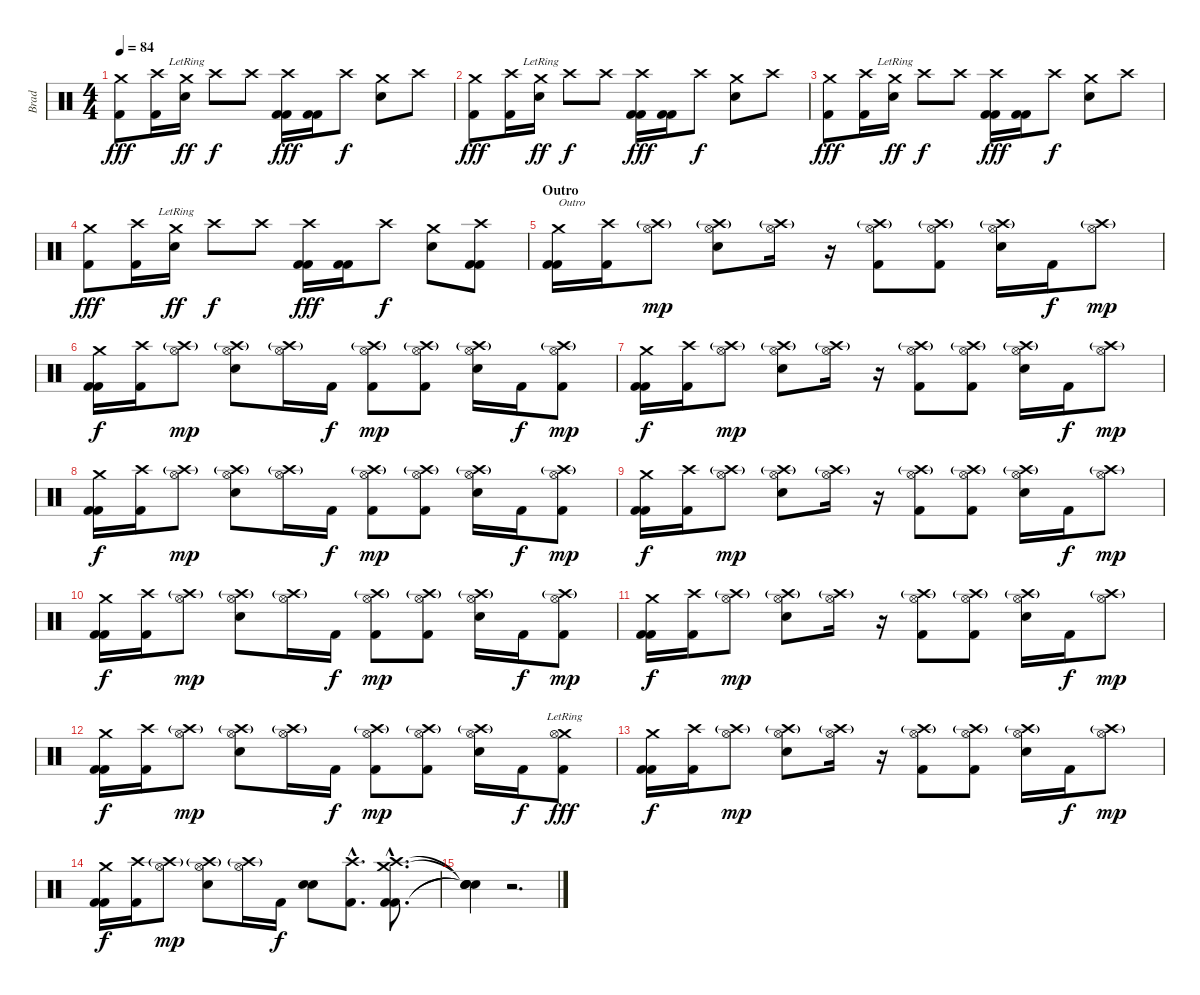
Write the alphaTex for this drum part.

\track ("Brad" "Brad") {instrument percussion}
\staff {score}
\articulation defaults
\ts (4 4)
\tempo 84
\clef neutral
\ks c
("Crash medium (hit)" "Kick (hit) 2").8{dy fff} ("Crash high (hit)" "Kick (hit) 2").16 ("Crash medium (hit)"{lr} "Electric Snare (hit)").16{dy ff} "Crash high (hit)".8{dy f} "Crash high (hit)".8 ("Crash high (hit)" "Kick (hit) 2" "Kick (hit) 2").16{dy fff} ("Kick (hit) 2" "Kick (hit) 2").16 "Crash high (hit)".8{dy f} ("Crash medium (hit)" "Electric Snare (hit)").8 "Crash high (hit)".8 |
("Crash medium (hit)" "Kick (hit) 2").8{dy fff} ("Crash high (hit)" "Kick (hit) 2").16 ("Crash medium (hit)"{lr} "Electric Snare (hit)").16{dy ff} "Crash high (hit)".8{dy f} "Crash high (hit)".8 ("Crash high (hit)" "Kick (hit) 2" "Kick (hit) 2").16{dy fff} ("Kick (hit) 2" "Kick (hit) 2").16 "Crash high (hit)".8{dy f} ("Crash medium (hit)" "Electric Snare (hit)").8 "Crash high (hit)".8 |
("Crash medium (hit)" "Kick (hit) 2").8{dy fff} ("Crash high (hit)" "Kick (hit) 2").16 ("Crash medium (hit)"{lr} "Electric Snare (hit)").16{dy ff} "Crash high (hit)".8{dy f} "Crash high (hit)".8 ("Crash high (hit)" "Kick (hit) 2" "Kick (hit) 2").16{dy fff} ("Kick (hit) 2" "Kick (hit) 2").16 "Crash high (hit)".8{dy f} ("Crash medium (hit)" "Electric Snare (hit)").8 "Crash high (hit)".8 |
("Crash medium (hit)" "Kick (hit) 2").8{dy fff} ("Crash high (hit)" "Kick (hit) 2").16 ("Crash medium (hit)"{lr} "Electric Snare (hit)").16{dy ff} "Crash high (hit)".8{dy f} "Crash high (hit)".8 ("Crash high (hit)" "Kick (hit) 2" "Kick (hit) 2").16{dy fff} ("Kick (hit) 2" "Kick (hit) 2").16 "Crash high (hit)".8{dy f} ("Crash medium (hit)" "Electric Snare (hit)").8 ("Crash high (hit)" "Kick (hit) 2" "Kick (hit) 2").8 |
\section ("" "Outro")
("Crash medium (hit)" "Kick (hit) 2" "Kick (hit) 2").16{txt "Outro"} ("Crash high (hit)" "Kick (hit) 2").16 ("Crash high (hit)"{g} "Hi-Hat (open)").8{dy mp} ("Crash high (hit)"{g} "Hi-Hat (open)" "Electric Snare (hit)").8 ("Crash high (hit)"{g} "Hi-Hat (open)").16 r.16 ("Crash high (hit)"{g} "Hi-Hat (open)" "Kick (hit) 2").8 ("Crash high (hit)"{g} "Hi-Hat (open)" "Kick (hit) 2").8 ("Crash high (hit)"{g} "Hi-Hat (open)" "Electric Snare (hit)").16 "Kick (hit) 2".16{dy f} ("Crash high (hit)"{g} "Hi-Hat (open)").8{dy mp} |
("Crash medium (hit)" "Kick (hit) 2" "Kick (hit) 2").16{dy f} ("Crash high (hit)" "Kick (hit) 2").16 ("Crash high (hit)"{g} "Hi-Hat (open)").8{dy mp} ("Crash high (hit)"{g} "Hi-Hat (open)" "Electric Snare (hit)").8 ("Crash high (hit)"{g} "Hi-Hat (open)").16 "Kick (hit) 2".16{dy f} ("Crash high (hit)"{g} "Hi-Hat (open)" "Kick (hit) 2").8{dy mp} ("Crash high (hit)"{g} "Hi-Hat (open)" "Kick (hit) 2").8 ("Crash high (hit)"{g} "Hi-Hat (open)" "Electric Snare (hit)").16 "Kick (hit) 2".16{dy f} ("Crash high (hit)"{g} "Hi-Hat (open)" "Kick (hit) 2").8{dy mp} |
("Crash medium (hit)" "Kick (hit) 2" "Kick (hit) 2").16{dy f} ("Crash high (hit)" "Kick (hit) 2").16 ("Crash high (hit)"{g} "Hi-Hat (open)").8{dy mp} ("Crash high (hit)"{g} "Hi-Hat (open)" "Electric Snare (hit)").8 ("Crash high (hit)"{g} "Hi-Hat (open)").16 r.16 ("Crash high (hit)"{g} "Hi-Hat (open)" "Kick (hit) 2").8 ("Crash high (hit)"{g} "Hi-Hat (open)" "Kick (hit) 2").8 ("Crash high (hit)"{g} "Hi-Hat (open)" "Electric Snare (hit)").16 "Kick (hit) 2".16{dy f} ("Crash high (hit)"{g} "Hi-Hat (open)").8{dy mp} |
("Crash medium (hit)" "Kick (hit) 2" "Kick (hit) 2").16{dy f} ("Crash high (hit)" "Kick (hit) 2").16 ("Crash high (hit)"{g} "Hi-Hat (open)").8{dy mp} ("Crash high (hit)"{g} "Hi-Hat (open)" "Electric Snare (hit)").8 ("Crash high (hit)"{g} "Hi-Hat (open)").16 "Kick (hit) 2".16{dy f} ("Crash high (hit)"{g} "Hi-Hat (open)" "Kick (hit) 2").8{dy mp} ("Crash high (hit)"{g} "Hi-Hat (open)" "Kick (hit) 2").8 ("Crash high (hit)"{g} "Hi-Hat (open)" "Electric Snare (hit)").16 "Kick (hit) 2".16{dy f} ("Crash high (hit)"{g} "Hi-Hat (open)" "Kick (hit) 2").8{dy mp} |
("Crash medium (hit)" "Kick (hit) 2" "Kick (hit) 2").16{dy f} ("Crash high (hit)" "Kick (hit) 2").16 ("Crash high (hit)"{g} "Hi-Hat (open)").8{dy mp} ("Crash high (hit)"{g} "Hi-Hat (open)" "Electric Snare (hit)").8 ("Crash high (hit)"{g} "Hi-Hat (open)").16 r.16 ("Crash high (hit)"{g} "Hi-Hat (open)" "Kick (hit) 2").8 ("Crash high (hit)"{g} "Hi-Hat (open)" "Kick (hit) 2").8 ("Crash high (hit)"{g} "Hi-Hat (open)" "Electric Snare (hit)").16 "Kick (hit) 2".16{dy f} ("Crash high (hit)"{g} "Hi-Hat (open)").8{dy mp} |
("Crash medium (hit)" "Kick (hit) 2" "Kick (hit) 2").16{dy f} ("Crash high (hit)" "Kick (hit) 2").16 ("Crash high (hit)"{g} "Hi-Hat (open)").8{dy mp} ("Crash high (hit)"{g} "Hi-Hat (open)" "Electric Snare (hit)").8 ("Crash high (hit)"{g} "Hi-Hat (open)").16 "Kick (hit) 2".16{dy f} ("Crash high (hit)"{g} "Hi-Hat (open)" "Kick (hit) 2").8{dy mp} ("Crash high (hit)"{g} "Hi-Hat (open)" "Kick (hit) 2").8 ("Crash high (hit)"{g} "Hi-Hat (open)" "Electric Snare (hit)").16 "Kick (hit) 2".16{dy f} ("Crash high (hit)"{g} "Hi-Hat (open)" "Kick (hit) 2").8{dy mp} |
("Crash medium (hit)" "Kick (hit) 2" "Kick (hit) 2").16{dy f} ("Crash high (hit)" "Kick (hit) 2").16 ("Crash high (hit)"{g} "Hi-Hat (open)").8{dy mp} ("Crash high (hit)"{g} "Hi-Hat (open)" "Electric Snare (hit)").8 ("Crash high (hit)"{g} "Hi-Hat (open)").16 r.16 ("Crash high (hit)"{g} "Hi-Hat (open)" "Kick (hit) 2").8 ("Crash high (hit)"{g} "Hi-Hat (open)" "Kick (hit) 2").8 ("Crash high (hit)"{g} "Hi-Hat (open)" "Electric Snare (hit)").16 "Kick (hit) 2".16{dy f} ("Crash high (hit)"{g} "Hi-Hat (open)").8{dy mp} |
("Crash medium (hit)" "Kick (hit) 2" "Kick (hit) 2").16{dy f} ("Crash high (hit)" "Kick (hit) 2").16 ("Crash high (hit)"{g} "Hi-Hat (open)").8{dy mp} ("Crash high (hit)"{g} "Hi-Hat (open)" "Electric Snare (hit)").8 ("Crash high (hit)"{g} "Hi-Hat (open)").16 "Kick (hit) 2".16{dy f} ("Crash high (hit)"{g} "Hi-Hat (open)" "Kick (hit) 2").8{dy mp} ("Crash high (hit)"{g} "Hi-Hat (open)" "Kick (hit) 2").8 ("Crash high (hit)"{g} "Hi-Hat (open)" "Electric Snare (hit)").16 "Kick (hit) 2".16{dy f} ("Crash medium (hit)"{lr} "Hi-Hat (open)" "Kick (hit) 2").8{dy fff} |
("Crash medium (hit)" "Kick (hit) 2" "Kick (hit) 2").16{dy f} ("Crash high (hit)" "Kick (hit) 2").16 ("Crash high (hit)"{g} "Hi-Hat (open)").8{dy mp} ("Crash high (hit)"{g} "Hi-Hat (open)" "Electric Snare (hit)").8 ("Crash high (hit)"{g} "Hi-Hat (open)").16 r.16 ("Crash high (hit)"{g} "Hi-Hat (open)" "Kick (hit) 2").8 ("Crash high (hit)"{g} "Hi-Hat (open)" "Kick (hit) 2").8 ("Crash high (hit)"{g} "Hi-Hat (open)" "Electric Snare (hit)").16 "Kick (hit) 2".16{dy f} ("Crash high (hit)"{g} "Hi-Hat (open)").8{dy mp} |
("Crash medium (hit)" "Kick (hit) 2" "Kick (hit) 2").16{dy f} ("Crash high (hit)" "Kick (hit) 2").16 ("Crash high (hit)"{g} "Hi-Hat (open)").8{dy mp} ("Crash high (hit)"{g} "Hi-Hat (open)" "Electric Snare (hit)").8 ("Crash high (hit)"{g} "Hi-Hat (open)").16 "Kick (hit) 2".16{dy f} ("Electric Snare (hit)" "Electric Snare (hit)").8{bd 240} ("Crash high (hit)"{hac} "Kick (hit) 2"{hac}).8{d} ("Crash medium (hit)"{hac} "Crash high (hit)"{hac} "Kick (hit) 2"{hac} "Kick (hit) 2"{hac}).8{d} |
("Snare (hit)"{t} "Snare (hit)"{t} "Snare (hit)"{t} "Snare (hit)"{t}).4 r.2{d}
